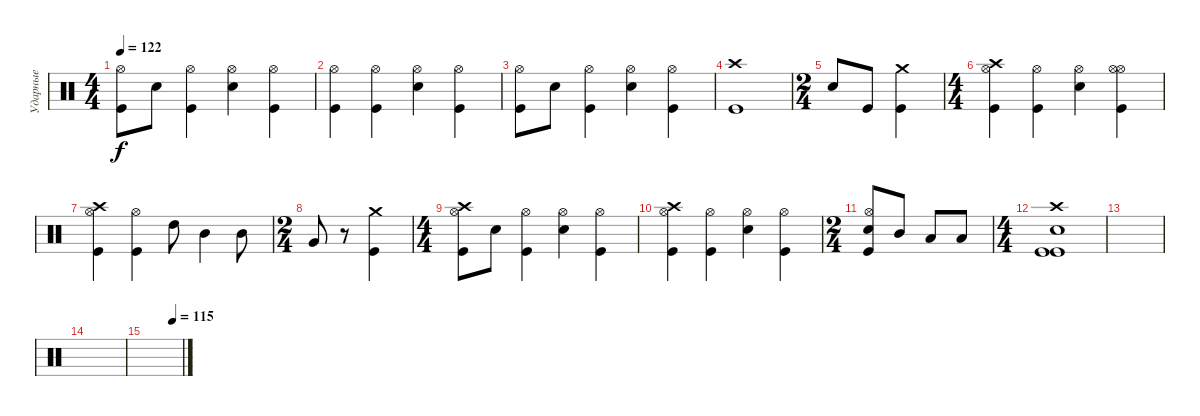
\track ("Ударные" "Ударные") {instrument percussion}
\staff {score}
\articulation defaults
\ts (4 4)
\tempo 122
\clef neutral
\ks c
("Kick (hit)" "Hi-Hat (open)").8{dy f} "Snare (hit) 2".8 ("Kick (hit)" "Hi-Hat (open)").4 ("Snare (hit) 2" "Hi-Hat (open)").4 ("Kick (hit)" "Hi-Hat (open)").4 |
("Kick (hit)" "Hi-Hat (open)").4 ("Kick (hit)" "Hi-Hat (open)").4 ("Snare (hit) 2" "Hi-Hat (open)").4 ("Kick (hit)" "Hi-Hat (open)").4 |
("Kick (hit)" "Hi-Hat (open)").8 "Snare (hit) 2".8 ("Kick (hit)" "Hi-Hat (open)").4 ("Snare (hit) 2" "Hi-Hat (open)").4 ("Kick (hit)" "Hi-Hat (open)").4 |
("Kick (hit)" "Crash high (hit)").1 |
\ts (2 4)
"Snare (hit) 2".8 "Kick (hit)".8 ("Kick (hit)" "Crash medium (hit)").4 |
\ts (4 4)
("Kick (hit)" "Hi-Hat (open)" "Crash high (hit)").4 ("Kick (hit)" "Hi-Hat (open)").4 ("Snare (hit) 2" "Hi-Hat (open)").4 ("Kick (hit)" "Hi-Hat (open)" "Hi-Hat (open)").4 |
("Kick (hit)" "Hi-Hat (open)" "Crash high (hit)").4 ("Kick (hit)" "Hi-Hat (open)").4 "High Tom (hit)".8 "Mid Tom (hit)".4 "Mid Tom (hit)".8 |
\ts (2 4)
"Very Low Tom (hit)".8 r.8 ("Kick (hit)" "Crash medium (hit)").4 |
\ts (4 4)
("Kick (hit)" "Hi-Hat (open)" "Crash high (hit)").8 "Snare (hit) 2".8 ("Kick (hit)" "Hi-Hat (open)").4 ("Snare (hit) 2" "Hi-Hat (open)").4 ("Kick (hit)" "Hi-Hat (open)").4 |
("Kick (hit)" "Hi-Hat (open)" "Crash high (hit)").4 ("Kick (hit)" "Hi-Hat (open)").4 ("Snare (hit) 2" "Hi-Hat (open)").4 ("Kick (hit)" "Hi-Hat (open)").4 |
\ts (2 4)
("Kick (hit)" "Snare (hit) 2" "Hi-Hat (open)").8 "Mid Tom (hit)".8 "Low Tom (hit)".8 "Low Tom (hit)".8 |
\ts (4 4)
("Kick (hit)" "Kick (hit)" "Snare (hit) 2" "Crash high (hit)").1 |
|
|
\tempo (115 0.75)
